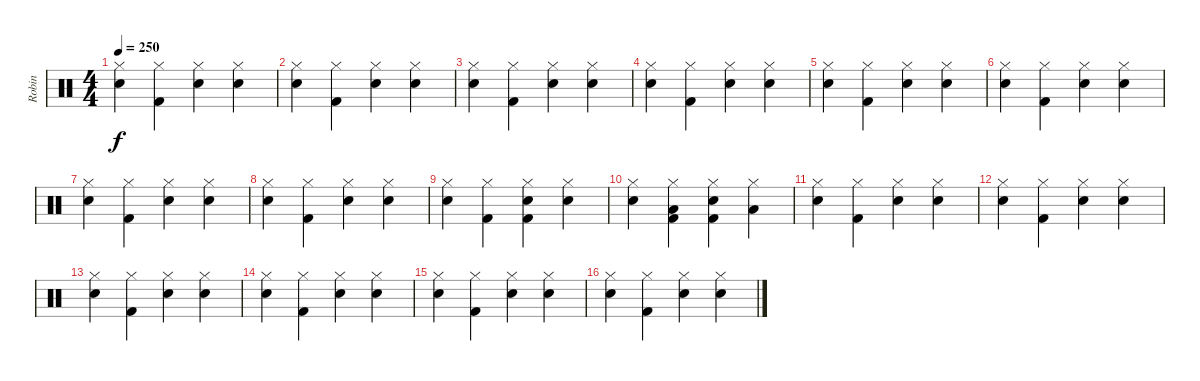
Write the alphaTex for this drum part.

\track ("Robin" "Robin") {instrument percussion}
\staff {score}
\articulation defaults
\ts (4 4)
\tempo 250
\clef neutral
\ks c
("Hi-Hat (closed)" "Snare (hit) 2").4{dy f} ("Hi-Hat (closed)" "Kick (hit) 2").4 ("Hi-Hat (closed)" "Snare (hit) 2").4 ("Hi-Hat (closed)" "Snare (hit) 2").4 |
("Hi-Hat (closed)" "Snare (hit) 2").4 ("Hi-Hat (closed)" "Kick (hit) 2").4 ("Hi-Hat (closed)" "Snare (hit) 2").4 ("Hi-Hat (closed)" "Snare (hit) 2").4 |
("Hi-Hat (closed)" "Snare (hit) 2").4 ("Hi-Hat (closed)" "Kick (hit) 2").4 ("Hi-Hat (closed)" "Snare (hit) 2").4 ("Hi-Hat (closed)" "Snare (hit) 2").4 |
("Hi-Hat (closed)" "Snare (hit) 2").4 ("Hi-Hat (closed)" "Kick (hit) 2").4 ("Hi-Hat (closed)" "Snare (hit) 2").4 ("Hi-Hat (closed)" "Snare (hit) 2").4 |
("Hi-Hat (closed)" "Snare (hit) 2").4 ("Hi-Hat (closed)" "Kick (hit) 2").4 ("Hi-Hat (closed)" "Snare (hit) 2").4 ("Hi-Hat (closed)" "Snare (hit) 2").4 |
("Hi-Hat (closed)" "Snare (hit) 2").4 ("Hi-Hat (closed)" "Kick (hit) 2").4 ("Hi-Hat (closed)" "Snare (hit) 2").4 ("Hi-Hat (closed)" "Snare (hit) 2").4 |
("Hi-Hat (closed)" "Snare (hit) 2").4 ("Hi-Hat (closed)" "Kick (hit) 2").4 ("Hi-Hat (closed)" "Snare (hit) 2").4 ("Hi-Hat (closed)" "Snare (hit) 2").4 |
("Hi-Hat (closed)" "Snare (hit) 2").4 ("Hi-Hat (closed)" "Kick (hit) 2").4 ("Hi-Hat (closed)" "Snare (hit) 2").4 ("Hi-Hat (closed)" "Snare (hit) 2").4 |
("Hi-Hat (closed)" "Snare (hit) 2").4 ("Hi-Hat (closed)" "Kick (hit) 2").4 ("Hi-Hat (closed)" "Kick (hit) 2" "Snare (hit) 2").4 ("Hi-Hat (closed)" "Snare (hit) 2").4 |
("Hi-Hat (closed)" "Snare (hit) 2").4 ("Hi-Hat (closed)" "Kick (hit) 2" "Low Floor Tom (hit)").4 ("Hi-Hat (closed)" "Kick (hit) 2" "Snare (hit) 2").4 ("Hi-Hat (closed)" "Low Floor Tom (hit)").4 |
("Hi-Hat (closed)" "Snare (hit) 2").4 ("Hi-Hat (closed)" "Kick (hit) 2").4 ("Hi-Hat (closed)" "Snare (hit) 2").4 ("Hi-Hat (closed)" "Snare (hit) 2").4 |
("Hi-Hat (closed)" "Snare (hit) 2").4 ("Hi-Hat (closed)" "Kick (hit) 2").4 ("Hi-Hat (closed)" "Snare (hit) 2").4 ("Hi-Hat (closed)" "Snare (hit) 2").4 |
("Hi-Hat (closed)" "Snare (hit) 2").4 ("Hi-Hat (closed)" "Kick (hit) 2").4 ("Hi-Hat (closed)" "Snare (hit) 2").4 ("Hi-Hat (closed)" "Snare (hit) 2").4 |
("Hi-Hat (closed)" "Snare (hit) 2").4 ("Hi-Hat (closed)" "Kick (hit) 2").4 ("Hi-Hat (closed)" "Snare (hit) 2").4 ("Hi-Hat (closed)" "Snare (hit) 2").4 |
("Hi-Hat (closed)" "Snare (hit) 2").4 ("Hi-Hat (closed)" "Kick (hit) 2").4 ("Hi-Hat (closed)" "Snare (hit) 2").4 ("Hi-Hat (closed)" "Snare (hit) 2").4 |
("Hi-Hat (closed)" "Snare (hit) 2").4 ("Hi-Hat (closed)" "Kick (hit) 2").4 ("Hi-Hat (closed)" "Snare (hit) 2").4 ("Hi-Hat (closed)" "Snare (hit) 2").4
